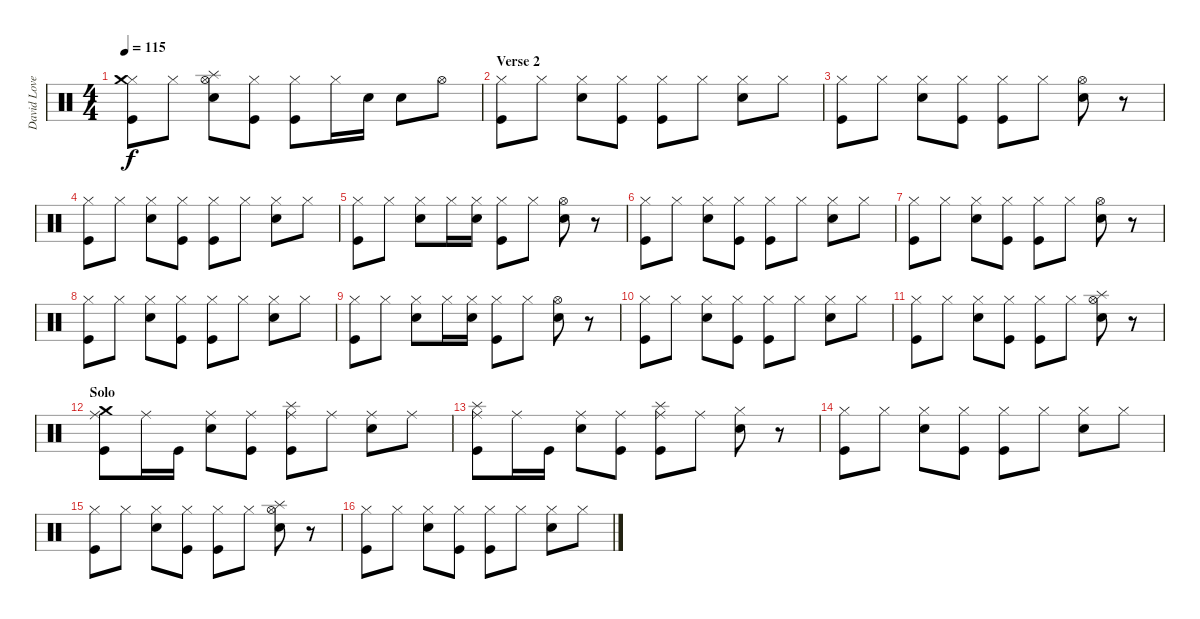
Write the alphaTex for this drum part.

\track ("David Lovering" "David Love") {instrument percussion}
\staff {score}
\articulation defaults
\ts (4 4)
\tempo 115
\clef neutral
\ks c
("Hi-Hat (closed)" "Crash medium (hit)" "Kick (hit)").8{dy f} "Hi-Hat (closed)".8 ("Hi-Hat (open)" "Splash (hit)" "Snare (hit) 2").8 ("Hi-Hat (closed)" "Kick (hit)").8 ("Hi-Hat (closed)" "Kick (hit)").8 "Hi-Hat (closed)".16 "Snare (hit) 2".16 "Snare (hit) 2".8 "Hi-Hat (open)".8 |
\section ("" "Verse 2")
("Hi-Hat (closed)" "Kick (hit)").8 "Hi-Hat (closed)".8 ("Hi-Hat (closed)" "Snare (hit) 2").8 ("Hi-Hat (closed)" "Kick (hit)").8 ("Hi-Hat (closed)" "Kick (hit)").8 "Hi-Hat (closed)".8 ("Hi-Hat (closed)" "Snare (hit) 2").8 "Hi-Hat (closed)".8 |
("Hi-Hat (closed)" "Kick (hit)").8 "Hi-Hat (closed)".8 ("Hi-Hat (closed)" "Snare (hit) 2").8 ("Hi-Hat (closed)" "Kick (hit)").8 ("Hi-Hat (closed)" "Kick (hit)").8 "Hi-Hat (closed)".8 ("Hi-Hat (open)" "Snare (hit) 2").8 r.8 |
("Hi-Hat (closed)" "Kick (hit)").8 "Hi-Hat (closed)".8 ("Hi-Hat (closed)" "Snare (hit) 2").8 ("Hi-Hat (closed)" "Kick (hit)").8 ("Hi-Hat (closed)" "Kick (hit)").8 "Hi-Hat (closed)".8 ("Hi-Hat (closed)" "Snare (hit) 2").8 "Hi-Hat (closed)".8 |
("Hi-Hat (closed)" "Kick (hit)").8 "Hi-Hat (closed)".8 ("Hi-Hat (closed)" "Snare (hit) 2").8 "Hi-Hat (closed)".16 ("Hi-Hat (closed)" "Snare (hit) 2").16 ("Hi-Hat (closed)" "Kick (hit)").8 "Hi-Hat (closed)".8 ("Hi-Hat (open)" "Snare (hit) 2").8 r.8 |
("Hi-Hat (closed)" "Kick (hit)").8 "Hi-Hat (closed)".8 ("Hi-Hat (closed)" "Snare (hit) 2").8 ("Hi-Hat (closed)" "Kick (hit)").8 ("Hi-Hat (closed)" "Kick (hit)").8 "Hi-Hat (closed)".8 ("Hi-Hat (closed)" "Snare (hit) 2").8 "Hi-Hat (closed)".8 |
("Hi-Hat (closed)" "Kick (hit)").8 "Hi-Hat (closed)".8 ("Hi-Hat (closed)" "Snare (hit) 2").8 ("Hi-Hat (closed)" "Kick (hit)").8 ("Hi-Hat (closed)" "Kick (hit)").8 "Hi-Hat (closed)".8 ("Hi-Hat (open)" "Snare (hit) 2").8 r.8 |
("Hi-Hat (closed)" "Kick (hit)").8 "Hi-Hat (closed)".8 ("Hi-Hat (closed)" "Snare (hit) 2").8 ("Hi-Hat (closed)" "Kick (hit)").8 ("Hi-Hat (closed)" "Kick (hit)").8 "Hi-Hat (closed)".8 ("Hi-Hat (closed)" "Snare (hit) 2").8 "Hi-Hat (closed)".8 |
("Hi-Hat (closed)" "Kick (hit)").8 "Hi-Hat (closed)".8 ("Hi-Hat (closed)" "Snare (hit) 2").8 "Hi-Hat (closed)".16 ("Hi-Hat (closed)" "Snare (hit) 2").16 ("Hi-Hat (closed)" "Kick (hit)").8 "Hi-Hat (closed)".8 ("Hi-Hat (open)" "Snare (hit) 2").8 r.8 |
("Hi-Hat (closed)" "Kick (hit)").8 "Hi-Hat (closed)".8 ("Hi-Hat (closed)" "Snare (hit) 2").8 ("Hi-Hat (closed)" "Kick (hit)").8 ("Hi-Hat (closed)" "Kick (hit)").8 "Hi-Hat (closed)".8 ("Hi-Hat (closed)" "Snare (hit) 2").8 "Hi-Hat (closed)".8 |
("Hi-Hat (closed)" "Kick (hit)").8 "Hi-Hat (closed)".8 ("Hi-Hat (closed)" "Snare (hit) 2").8 ("Hi-Hat (closed)" "Kick (hit)").8 ("Hi-Hat (closed)" "Kick (hit)").8 "Hi-Hat (closed)".8 ("Hi-Hat (open)" "Splash (hit)" "Snare (hit) 2").8 r.8 |
\section ("" "Solo")
("Ride (middle)" "Crash medium (hit)" "Kick (hit)").8 "Ride (middle)".16 "Kick (hit)".16 ("Ride (middle)" "Snare (hit) 2").8 ("Ride (middle)" "Kick (hit)").8 ("Ride (middle)" "Splash (hit)" "Kick (hit)").8 "Ride (middle)".8 ("Ride (middle)" "Snare (hit) 2").8 "Ride (middle)".8 |
("Ride (middle)" "Splash (hit)" "Kick (hit)").8 "Ride (middle)".16 "Kick (hit)".16 ("Ride (middle)" "Snare (hit) 2").8 ("Ride (middle)" "Kick (hit)").8 ("Ride (middle)" "Splash (hit)" "Kick (hit)").8 "Ride (middle)".8 ("Hi-Hat (closed)" "Snare (hit) 2").8 r.8 |
\section ("" "")
("Hi-Hat (closed)" "Kick (hit)").8 "Hi-Hat (closed)".8 ("Hi-Hat (closed)" "Snare (hit) 2").8 ("Hi-Hat (closed)" "Kick (hit)").8 ("Hi-Hat (closed)" "Kick (hit)").8 "Hi-Hat (closed)".8 ("Hi-Hat (closed)" "Snare (hit) 2").8 "Hi-Hat (closed)".8 |
("Hi-Hat (closed)" "Kick (hit)").8 "Hi-Hat (closed)".8 ("Hi-Hat (closed)" "Snare (hit) 2").8 ("Hi-Hat (closed)" "Kick (hit)").8 ("Hi-Hat (closed)" "Kick (hit)").8 "Hi-Hat (closed)".8 ("Hi-Hat (open)" "Splash (hit)" "Snare (hit) 2").8 r.8 |
("Hi-Hat (closed)" "Kick (hit)").8 "Hi-Hat (closed)".8 ("Hi-Hat (closed)" "Snare (hit) 2").8 ("Hi-Hat (closed)" "Kick (hit)").8 ("Hi-Hat (closed)" "Kick (hit)").8 "Hi-Hat (closed)".8 ("Hi-Hat (closed)" "Snare (hit) 2").8 "Hi-Hat (closed)".8
